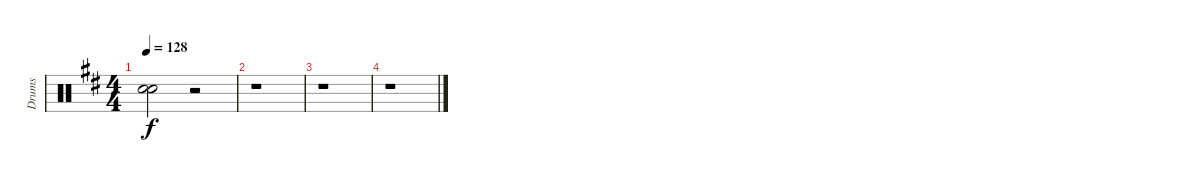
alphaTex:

\track ("Drums" "Drums") {instrument percussion}
\staff {score}
\articulation defaults
\ts (4 4)
\tempo 128
\clef neutral
\ks d
("Snare (hit)"{t} "Snare (hit)"{t}).2{dy f} r.2 |
r.1 |
r.1 |
r.1
